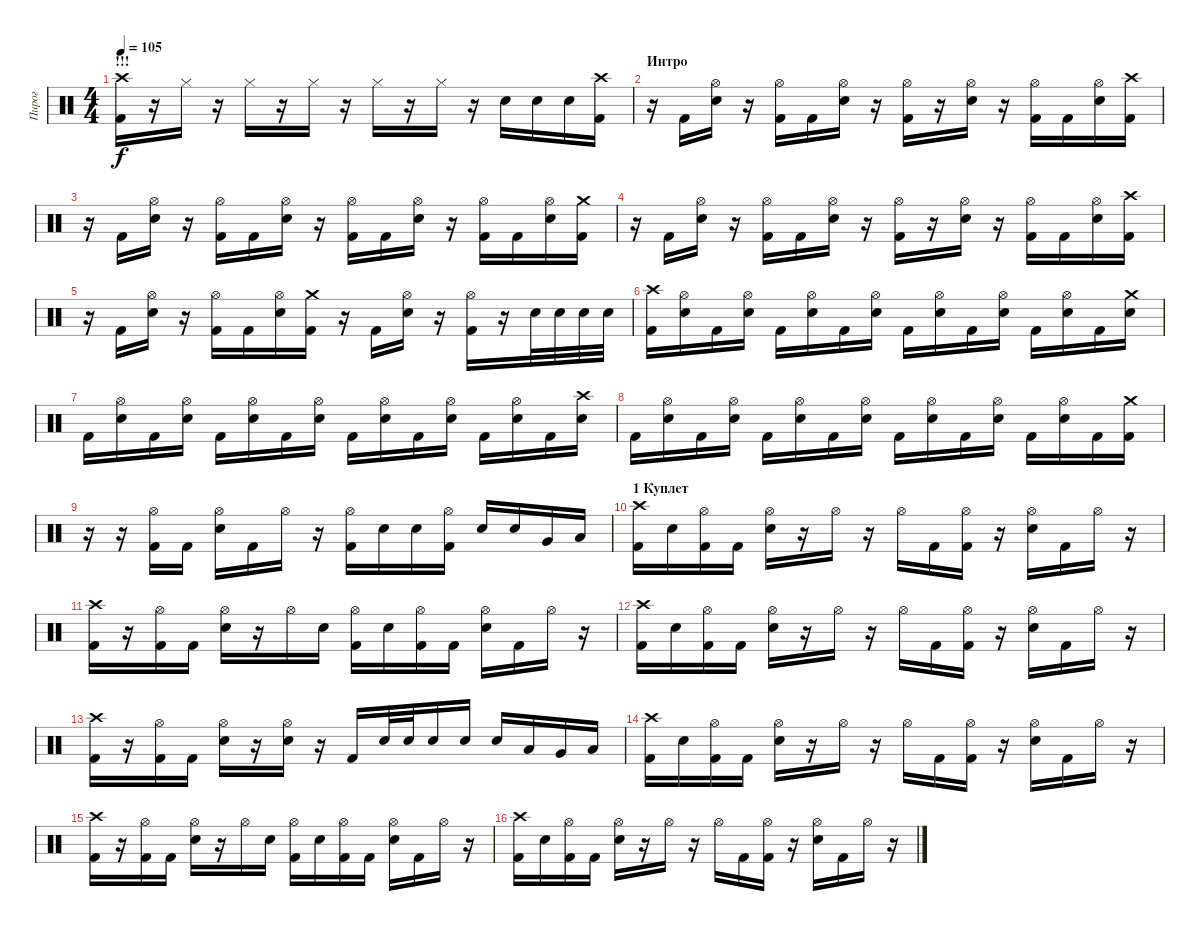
\track ("Пирог" "Пирог") {instrument percussion}
\staff {score}
\articulation defaults
\ts (4 4)
\section ("" "!!!")
\tempo 105
\clef neutral
\ks c
("Crash high (hit)" "Kick (hit) 2").16{dy f} r.16 "Hi-Hat (closed)".16 r.16 "Hi-Hat (closed)".16 r.16 "Hi-Hat (closed)".16 r.16 "Hi-Hat (closed)".16 r.16 "Hi-Hat (closed)".16 r.16 "Electric Snare (hit)".16 "Electric Snare (hit)".16 "Electric Snare (hit)".16 ("Crash high (hit)" "Kick (hit) 2").16 |
\section ("" "Интро")
r.16 "Kick (hit) 2".16 ("Hi-Hat (open)" "Electric Snare (hit)").16 r.16 ("Hi-Hat (open)" "Kick (hit) 2").16 "Kick (hit) 2".16 ("Hi-Hat (open)" "Electric Snare (hit)").16 r.16 ("Hi-Hat (open)" "Kick (hit) 2").16 r.16 ("Hi-Hat (open)" "Electric Snare (hit)").16 r.16 ("Hi-Hat (open)" "Kick (hit) 2").16 "Kick (hit) 2".16 ("Hi-Hat (open)" "Electric Snare (hit)").16 ("Crash high (hit)" "Kick (hit) 2").16 |
r.16 "Kick (hit) 2".16 ("Hi-Hat (open)" "Electric Snare (hit)").16 r.16 ("Hi-Hat (open)" "Kick (hit) 2").16 "Kick (hit) 2".16 ("Hi-Hat (open)" "Electric Snare (hit)").16 r.16 ("Hi-Hat (open)" "Kick (hit) 2").16 "Kick (hit) 2".16 ("Hi-Hat (open)" "Electric Snare (hit)").16 r.16 ("Hi-Hat (open)" "Kick (hit) 2").16 "Kick (hit) 2".16 ("Hi-Hat (open)" "Electric Snare (hit)").16 ("Crash medium (hit)" "Kick (hit) 2").16 |
r.16 "Kick (hit) 2".16 ("Hi-Hat (open)" "Electric Snare (hit)").16 r.16 ("Hi-Hat (open)" "Kick (hit) 2").16 "Kick (hit) 2".16 ("Hi-Hat (open)" "Electric Snare (hit)").16 r.16 ("Hi-Hat (open)" "Kick (hit) 2").16 r.16 ("Hi-Hat (open)" "Electric Snare (hit)").16 r.16 ("Hi-Hat (open)" "Kick (hit) 2").16 "Kick (hit) 2".16 ("Hi-Hat (open)" "Electric Snare (hit)").16 ("Crash high (hit)" "Kick (hit) 2").16 |
r.16 "Kick (hit) 2".16 ("Hi-Hat (open)" "Electric Snare (hit)").16 r.16 ("Hi-Hat (open)" "Kick (hit) 2").16 "Kick (hit) 2".16 ("Hi-Hat (open)" "Electric Snare (hit)").16 ("Crash medium (hit)" "Kick (hit) 2").16 r.16 "Kick (hit) 2".16 ("Hi-Hat (open)" "Electric Snare (hit)").16 r.16 ("Hi-Hat (open)" "Kick (hit) 2").16 r.16 "Electric Snare (hit)".32 "Electric Snare (hit)".32 "Electric Snare (hit)".32 "Electric Snare (hit)".32 |
("Crash high (hit)" "Kick (hit) 2").16 ("Hi-Hat (open)" "Electric Snare (hit)").16 "Kick (hit) 2".16 ("Hi-Hat (open)" "Electric Snare (hit)").16 "Kick (hit) 2".16 ("Hi-Hat (open)" "Electric Snare (hit)").16 "Kick (hit) 2".16 ("Hi-Hat (open)" "Electric Snare (hit)").16 "Kick (hit) 2".16 ("Hi-Hat (open)" "Electric Snare (hit)").16 "Kick (hit) 2".16 ("Hi-Hat (open)" "Electric Snare (hit)").16 "Kick (hit) 2".16 ("Hi-Hat (open)" "Electric Snare (hit)").16 "Kick (hit) 2".16 ("Crash medium (hit)" "Electric Snare (hit)").16 |
"Kick (hit) 2".16 ("Hi-Hat (open)" "Electric Snare (hit)").16 "Kick (hit) 2".16 ("Hi-Hat (open)" "Electric Snare (hit)").16 "Kick (hit) 2".16 ("Hi-Hat (open)" "Electric Snare (hit)").16 "Kick (hit) 2".16 ("Hi-Hat (open)" "Electric Snare (hit)").16 "Kick (hit) 2".16 ("Hi-Hat (open)" "Electric Snare (hit)").16 "Kick (hit) 2".16 ("Hi-Hat (open)" "Electric Snare (hit)").16 "Kick (hit) 2".16 ("Hi-Hat (open)" "Electric Snare (hit)").16 "Kick (hit) 2".16 ("Crash high (hit)" "Electric Snare (hit)").16 |
"Kick (hit) 2".16 ("Hi-Hat (open)" "Electric Snare (hit)").16 "Kick (hit) 2".16 ("Hi-Hat (open)" "Electric Snare (hit)").16 "Kick (hit) 2".16 ("Hi-Hat (open)" "Electric Snare (hit)").16 "Kick (hit) 2".16 ("Hi-Hat (open)" "Electric Snare (hit)").16 "Kick (hit) 2".16 ("Hi-Hat (open)" "Electric Snare (hit)").16 "Kick (hit) 2".16 ("Hi-Hat (open)" "Electric Snare (hit)").16 "Kick (hit) 2".16 ("Hi-Hat (open)" "Electric Snare (hit)").16 "Kick (hit) 2".16 ("Crash medium (hit)" "Kick (hit) 2").16 |
r.16 r.16 ("Hi-Hat (open)" "Kick (hit) 2").16 "Kick (hit) 2".16 ("Hi-Hat (open)" "Electric Snare (hit)").16 "Kick (hit) 2".16 "Hi-Hat (open)".16 r.16 ("Hi-Hat (open)" "Kick (hit) 2").16 "Electric Snare (hit)".16 "Electric Snare (hit)".16 ("Hi-Hat (open)" "Kick (hit) 2").16 "Electric Snare (hit)".16 "Electric Snare (hit)".16 "Very Low Tom (hit)".16 "Low Floor Tom (hit)".16 |
\section ("" "1 Куплет")
("Crash high (hit)" "Kick (hit) 2").16 "Electric Snare (hit)".16 ("Hi-Hat (open)" "Kick (hit) 2").16 "Kick (hit) 2".16 ("Hi-Hat (open)" "Electric Snare (hit)").16 r.16 "Hi-Hat (open)".16 r.16 "Hi-Hat (open)".16 "Kick (hit) 2".16 ("Hi-Hat (open)" "Kick (hit) 2").16 r.16 ("Hi-Hat (open)" "Electric Snare (hit)").16 "Kick (hit) 2".16 "Hi-Hat (open)".16 r.16 |
("Crash high (hit)" "Kick (hit) 2").16 r.16 ("Hi-Hat (open)" "Kick (hit) 2").16 "Kick (hit) 2".16 ("Hi-Hat (open)" "Electric Snare (hit)").16 r.16 "Hi-Hat (open)".16 "Electric Snare (hit)".16 ("Hi-Hat (open)" "Kick (hit) 2").16 "Electric Snare (hit)".16 ("Hi-Hat (open)" "Kick (hit) 2").16 "Kick (hit) 2".16 ("Hi-Hat (open)" "Electric Snare (hit)").16 "Kick (hit) 2".16 "Hi-Hat (open)".16 r.16 |
("Crash high (hit)" "Kick (hit) 2").16 "Electric Snare (hit)".16 ("Hi-Hat (open)" "Kick (hit) 2").16 "Kick (hit) 2".16 ("Hi-Hat (open)" "Electric Snare (hit)").16 r.16 "Hi-Hat (open)".16 r.16 "Hi-Hat (open)".16 "Kick (hit) 2".16 ("Hi-Hat (open)" "Kick (hit) 2").16 r.16 ("Hi-Hat (open)" "Electric Snare (hit)").16 "Kick (hit) 2".16 "Hi-Hat (open)".16 r.16 |
("Crash high (hit)" "Kick (hit) 2").16 r.16 ("Hi-Hat (open)" "Kick (hit) 2").16 "Kick (hit) 2".16 ("Hi-Hat (open)" "Electric Snare (hit)").16 r.16 ("Hi-Hat (open)" "Electric Snare (hit)").16 r.16 "Kick (hit) 2".16 "Electric Snare (hit)".32 "Electric Snare (hit)".32 "Electric Snare (hit)".16 "Electric Snare (hit)".16 "Electric Snare (hit)".16 "Low Tom (hit)".16 "Very Low Tom (hit)".16 "Low Floor Tom (hit)".16 |
("Crash high (hit)" "Kick (hit) 2").16 "Electric Snare (hit)".16 ("Hi-Hat (open)" "Kick (hit) 2").16 "Kick (hit) 2".16 ("Hi-Hat (open)" "Electric Snare (hit)").16 r.16 "Hi-Hat (open)".16 r.16 "Hi-Hat (open)".16 "Kick (hit) 2".16 ("Hi-Hat (open)" "Kick (hit) 2").16 r.16 ("Hi-Hat (open)" "Electric Snare (hit)").16 "Kick (hit) 2".16 "Hi-Hat (open)".16 r.16 |
("Crash high (hit)" "Kick (hit) 2").16 r.16 ("Hi-Hat (open)" "Kick (hit) 2").16 "Kick (hit) 2".16 ("Hi-Hat (open)" "Electric Snare (hit)").16 r.16 "Hi-Hat (open)".16 "Electric Snare (hit)".16 ("Hi-Hat (open)" "Kick (hit) 2").16 "Electric Snare (hit)".16 ("Hi-Hat (open)" "Kick (hit) 2").16 "Kick (hit) 2".16 ("Hi-Hat (open)" "Electric Snare (hit)").16 "Kick (hit) 2".16 "Hi-Hat (open)".16 r.16 |
("Crash high (hit)" "Kick (hit) 2").16 "Electric Snare (hit)".16 ("Hi-Hat (open)" "Kick (hit) 2").16 "Kick (hit) 2".16 ("Hi-Hat (open)" "Electric Snare (hit)").16 r.16 "Hi-Hat (open)".16 r.16 "Hi-Hat (open)".16 "Kick (hit) 2".16 ("Hi-Hat (open)" "Kick (hit) 2").16 r.16 ("Hi-Hat (open)" "Electric Snare (hit)").16 "Kick (hit) 2".16 "Hi-Hat (open)".16 r.16
